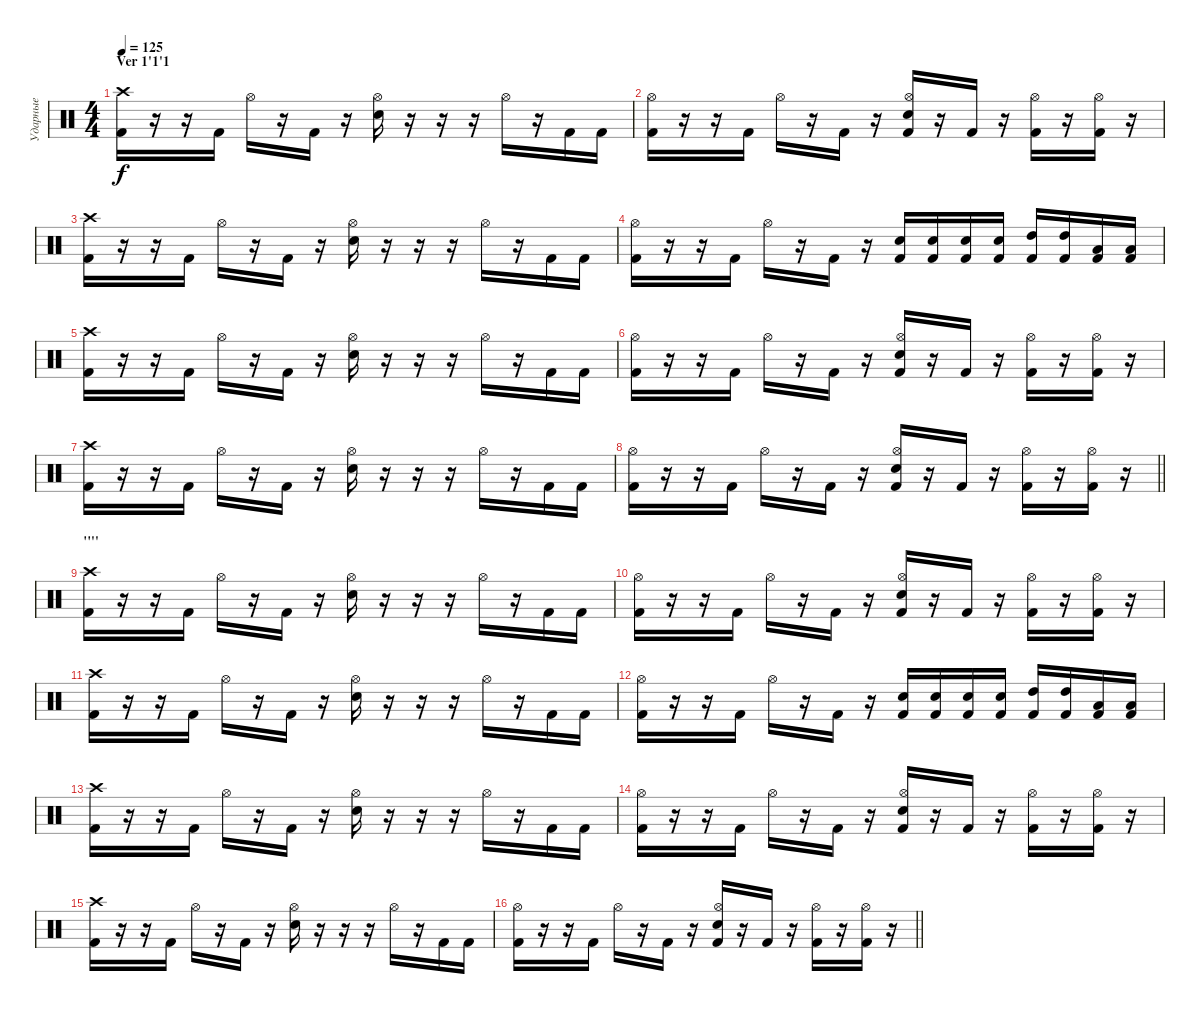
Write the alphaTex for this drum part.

\track ("Ударные" "Ударные") {instrument percussion}
\staff {score}
\articulation defaults
\ts (4 4)
\section ("" "Ver 1'1'1")
\tempo 125
\clef neutral
\ks c
("Crash high (hit)" "Kick (hit) 2").16{dy f} r.16 r.16 "Kick (hit) 2".16 "Hi-Hat (open)".16 r.16 "Kick (hit) 2".16 r.16 ("Hi-Hat (open)" "Electric Snare (hit)").16 r.16 r.16 r.16 "Hi-Hat (open)".16 r.16 "Kick (hit) 2".16 "Kick (hit) 2".16 |
("Hi-Hat (open)" "Kick (hit) 2").16 r.16 r.16 "Kick (hit) 2".16 "Hi-Hat (open)".16 r.16 "Kick (hit) 2".16 r.16 ("Hi-Hat (open)" "Electric Snare (hit)" "Kick (hit) 2").16 r.16 "Kick (hit) 2".16 r.16 ("Hi-Hat (open)" "Kick (hit) 2").16 r.16 ("Hi-Hat (open)" "Kick (hit) 2").16 r.16 |
("Crash high (hit)" "Kick (hit) 2").16 r.16 r.16 "Kick (hit) 2".16 "Hi-Hat (open)".16 r.16 "Kick (hit) 2".16 r.16 ("Hi-Hat (open)" "Electric Snare (hit)").16 r.16 r.16 r.16 "Hi-Hat (open)".16 r.16 "Kick (hit) 2".16 "Kick (hit) 2".16 |
("Hi-Hat (open)" "Kick (hit) 2").16 r.16 r.16 "Kick (hit) 2".16 "Hi-Hat (open)".16 r.16 "Kick (hit) 2".16 r.16 ("Electric Snare (hit)" "Kick (hit) 2").16 ("Electric Snare (hit)" "Kick (hit) 2").16 ("Electric Snare (hit)" "Kick (hit) 2").16 ("Electric Snare (hit)" "Kick (hit) 2").16 ("High Tom (hit)" "Kick (hit) 2").16 ("High Tom (hit)" "Kick (hit) 2").16 ("Low Tom (hit)" "Kick (hit) 2").16 ("Low Tom (hit)" "Kick (hit) 2").16 |
("Crash high (hit)" "Kick (hit) 2").16 r.16 r.16 "Kick (hit) 2".16 "Hi-Hat (open)".16 r.16 "Kick (hit) 2".16 r.16 ("Hi-Hat (open)" "Electric Snare (hit)").16 r.16 r.16 r.16 "Hi-Hat (open)".16 r.16 "Kick (hit) 2".16 "Kick (hit) 2".16 |
("Hi-Hat (open)" "Kick (hit) 2").16 r.16 r.16 "Kick (hit) 2".16 "Hi-Hat (open)".16 r.16 "Kick (hit) 2".16 r.16 ("Hi-Hat (open)" "Electric Snare (hit)" "Kick (hit) 2").16 r.16 "Kick (hit) 2".16 r.16 ("Hi-Hat (open)" "Kick (hit) 2").16 r.16 ("Hi-Hat (open)" "Kick (hit) 2").16 r.16 |
("Crash high (hit)" "Kick (hit) 2").16 r.16 r.16 "Kick (hit) 2".16 "Hi-Hat (open)".16 r.16 "Kick (hit) 2".16 r.16 ("Hi-Hat (open)" "Electric Snare (hit)").16 r.16 r.16 r.16 "Hi-Hat (open)".16 r.16 "Kick (hit) 2".16 "Kick (hit) 2".16 |
\barLineRight lightlight
("Hi-Hat (open)" "Kick (hit) 2").16 r.16 r.16 "Kick (hit) 2".16 "Hi-Hat (open)".16 r.16 "Kick (hit) 2".16 r.16 ("Hi-Hat (open)" "Electric Snare (hit)" "Kick (hit) 2").16 r.16 "Kick (hit) 2".16 r.16 ("Hi-Hat (open)" "Kick (hit) 2").16 r.16 ("Hi-Hat (open)" "Kick (hit) 2").16 r.16 |
\section ("" "''''")
("Crash high (hit)" "Kick (hit) 2").16 r.16 r.16 "Kick (hit) 2".16 "Hi-Hat (open)".16 r.16 "Kick (hit) 2".16 r.16 ("Hi-Hat (open)" "Electric Snare (hit)").16 r.16 r.16 r.16 "Hi-Hat (open)".16 r.16 "Kick (hit) 2".16 "Kick (hit) 2".16 |
("Hi-Hat (open)" "Kick (hit) 2").16 r.16 r.16 "Kick (hit) 2".16 "Hi-Hat (open)".16 r.16 "Kick (hit) 2".16 r.16 ("Hi-Hat (open)" "Electric Snare (hit)" "Kick (hit) 2").16 r.16 "Kick (hit) 2".16 r.16 ("Hi-Hat (open)" "Kick (hit) 2").16 r.16 ("Hi-Hat (open)" "Kick (hit) 2").16 r.16 |
("Crash high (hit)" "Kick (hit) 2").16 r.16 r.16 "Kick (hit) 2".16 "Hi-Hat (open)".16 r.16 "Kick (hit) 2".16 r.16 ("Hi-Hat (open)" "Electric Snare (hit)").16 r.16 r.16 r.16 "Hi-Hat (open)".16 r.16 "Kick (hit) 2".16 "Kick (hit) 2".16 |
("Hi-Hat (open)" "Kick (hit) 2").16 r.16 r.16 "Kick (hit) 2".16 "Hi-Hat (open)".16 r.16 "Kick (hit) 2".16 r.16 ("Electric Snare (hit)" "Kick (hit) 2").16 ("Electric Snare (hit)" "Kick (hit) 2").16 ("Electric Snare (hit)" "Kick (hit) 2").16 ("Electric Snare (hit)" "Kick (hit) 2").16 ("High Tom (hit)" "Kick (hit) 2").16 ("High Tom (hit)" "Kick (hit) 2").16 ("Low Tom (hit)" "Kick (hit) 2").16 ("Low Tom (hit)" "Kick (hit) 2").16 |
("Crash high (hit)" "Kick (hit) 2").16 r.16 r.16 "Kick (hit) 2".16 "Hi-Hat (open)".16 r.16 "Kick (hit) 2".16 r.16 ("Hi-Hat (open)" "Electric Snare (hit)").16 r.16 r.16 r.16 "Hi-Hat (open)".16 r.16 "Kick (hit) 2".16 "Kick (hit) 2".16 |
("Hi-Hat (open)" "Kick (hit) 2").16 r.16 r.16 "Kick (hit) 2".16 "Hi-Hat (open)".16 r.16 "Kick (hit) 2".16 r.16 ("Hi-Hat (open)" "Electric Snare (hit)" "Kick (hit) 2").16 r.16 "Kick (hit) 2".16 r.16 ("Hi-Hat (open)" "Kick (hit) 2").16 r.16 ("Hi-Hat (open)" "Kick (hit) 2").16 r.16 |
("Crash high (hit)" "Kick (hit) 2").16 r.16 r.16 "Kick (hit) 2".16 "Hi-Hat (open)".16 r.16 "Kick (hit) 2".16 r.16 ("Hi-Hat (open)" "Electric Snare (hit)").16 r.16 r.16 r.16 "Hi-Hat (open)".16 r.16 "Kick (hit) 2".16 "Kick (hit) 2".16 |
\barLineRight lightlight
("Hi-Hat (open)" "Kick (hit) 2").16 r.16 r.16 "Kick (hit) 2".16 "Hi-Hat (open)".16 r.16 "Kick (hit) 2".16 r.16 ("Hi-Hat (open)" "Electric Snare (hit)" "Kick (hit) 2").16 r.16 "Kick (hit) 2".16 r.16 ("Hi-Hat (open)" "Kick (hit) 2").16 r.16 ("Hi-Hat (open)" "Kick (hit) 2").16 r.16
